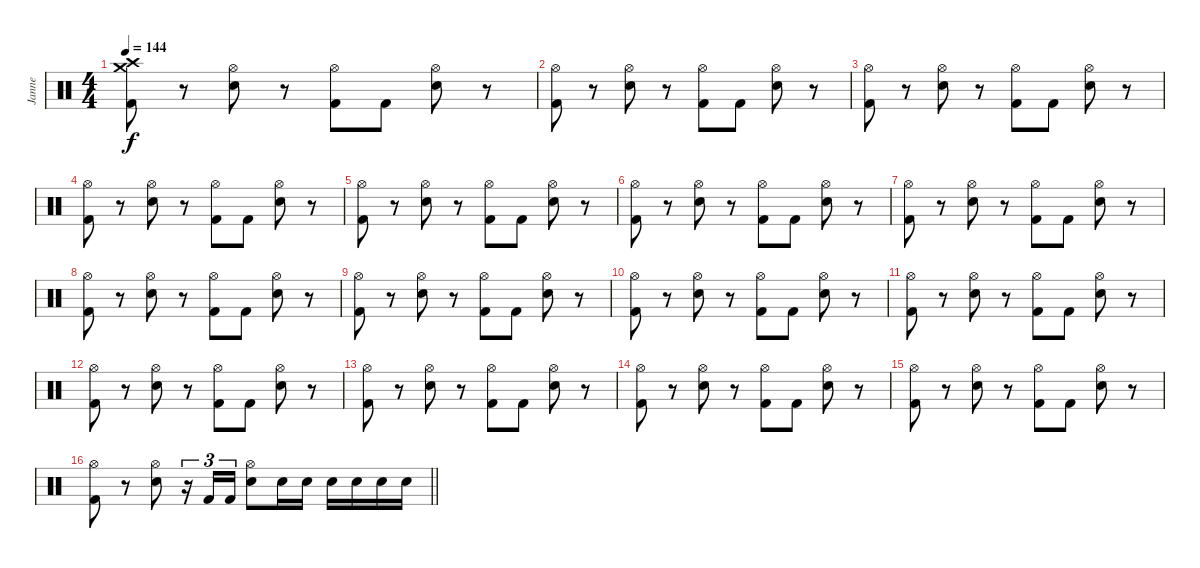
\track ("Janne" "Janne") {instrument percussion}
\staff {score}
\articulation defaults
\ts (4 4)
\tempo 144
\clef neutral
\ks c
("Crash high (hit)" "Crash medium (hit)" "Kick (hit) 2").8{dy f} r.8 ("Hi-Hat (open)" "Electric Snare (hit)").8 r.8 ("Hi-Hat (open)" "Kick (hit) 2").8 "Kick (hit) 2".8 ("Hi-Hat (open)" "Electric Snare (hit)").8 r.8 |
("Hi-Hat (open)" "Kick (hit) 2").8 r.8 ("Hi-Hat (open)" "Electric Snare (hit)").8 r.8 ("Hi-Hat (open)" "Kick (hit) 2").8 "Kick (hit) 2".8 ("Hi-Hat (open)" "Electric Snare (hit)").8 r.8 |
("Hi-Hat (open)" "Kick (hit) 2").8 r.8 ("Hi-Hat (open)" "Electric Snare (hit)").8 r.8 ("Hi-Hat (open)" "Kick (hit) 2").8 "Kick (hit) 2".8 ("Hi-Hat (open)" "Electric Snare (hit)").8 r.8 |
("Hi-Hat (open)" "Kick (hit) 2").8 r.8 ("Hi-Hat (open)" "Electric Snare (hit)").8 r.8 ("Hi-Hat (open)" "Kick (hit) 2").8 "Kick (hit) 2".8 ("Hi-Hat (open)" "Electric Snare (hit)").8 r.8 |
("Hi-Hat (open)" "Kick (hit) 2").8 r.8 ("Hi-Hat (open)" "Electric Snare (hit)").8 r.8 ("Hi-Hat (open)" "Kick (hit) 2").8 "Kick (hit) 2".8 ("Hi-Hat (open)" "Electric Snare (hit)").8 r.8 |
("Hi-Hat (open)" "Kick (hit) 2").8 r.8 ("Hi-Hat (open)" "Electric Snare (hit)").8 r.8 ("Hi-Hat (open)" "Kick (hit) 2").8 "Kick (hit) 2".8 ("Hi-Hat (open)" "Electric Snare (hit)").8 r.8 |
("Hi-Hat (open)" "Kick (hit) 2").8 r.8 ("Hi-Hat (open)" "Electric Snare (hit)").8 r.8 ("Hi-Hat (open)" "Kick (hit) 2").8 "Kick (hit) 2".8 ("Hi-Hat (open)" "Electric Snare (hit)").8 r.8 |
("Hi-Hat (open)" "Kick (hit) 2").8 r.8 ("Hi-Hat (open)" "Electric Snare (hit)").8 r.8 ("Hi-Hat (open)" "Kick (hit) 2").8 "Kick (hit) 2".8 ("Hi-Hat (open)" "Electric Snare (hit)").8 r.8 |
("Hi-Hat (open)" "Kick (hit) 2").8 r.8 ("Hi-Hat (open)" "Electric Snare (hit)").8 r.8 ("Hi-Hat (open)" "Kick (hit) 2").8 "Kick (hit) 2".8 ("Hi-Hat (open)" "Electric Snare (hit)").8 r.8 |
("Hi-Hat (open)" "Kick (hit) 2").8 r.8 ("Hi-Hat (open)" "Electric Snare (hit)").8 r.8 ("Hi-Hat (open)" "Kick (hit) 2").8 "Kick (hit) 2".8 ("Hi-Hat (open)" "Electric Snare (hit)").8 r.8 |
("Hi-Hat (open)" "Kick (hit) 2").8 r.8 ("Hi-Hat (open)" "Electric Snare (hit)").8 r.8 ("Hi-Hat (open)" "Kick (hit) 2").8 "Kick (hit) 2".8 ("Hi-Hat (open)" "Electric Snare (hit)").8 r.8 |
("Hi-Hat (open)" "Kick (hit) 2").8 r.8 ("Hi-Hat (open)" "Electric Snare (hit)").8 r.8 ("Hi-Hat (open)" "Kick (hit) 2").8 "Kick (hit) 2".8 ("Hi-Hat (open)" "Electric Snare (hit)").8 r.8 |
("Hi-Hat (open)" "Kick (hit) 2").8 r.8 ("Hi-Hat (open)" "Electric Snare (hit)").8 r.8 ("Hi-Hat (open)" "Kick (hit) 2").8 "Kick (hit) 2".8 ("Hi-Hat (open)" "Electric Snare (hit)").8 r.8 |
("Hi-Hat (open)" "Kick (hit) 2").8 r.8 ("Hi-Hat (open)" "Electric Snare (hit)").8 r.8 ("Hi-Hat (open)" "Kick (hit) 2").8 "Kick (hit) 2".8 ("Hi-Hat (open)" "Electric Snare (hit)").8 r.8 |
("Hi-Hat (open)" "Kick (hit) 2").8 r.8 ("Hi-Hat (open)" "Electric Snare (hit)").8 r.8 ("Hi-Hat (open)" "Kick (hit) 2").8 "Kick (hit) 2".8 ("Hi-Hat (open)" "Electric Snare (hit)").8 r.8 |
\barLineRight lightlight
("Hi-Hat (open)" "Kick (hit) 2").8 r.8 ("Hi-Hat (open)" "Electric Snare (hit)").8 r.16{tu (3 2)} "Kick (hit) 2".16{tu (3 2)} "Kick (hit) 2".16{tu (3 2)} ("Hi-Hat (open)" "Electric Snare (hit)").8 "Electric Snare (hit)".16 "Electric Snare (hit)".16 "Electric Snare (hit)".16 "Electric Snare (hit)".16 "Electric Snare (hit)".16 "Electric Snare (hit)".16
